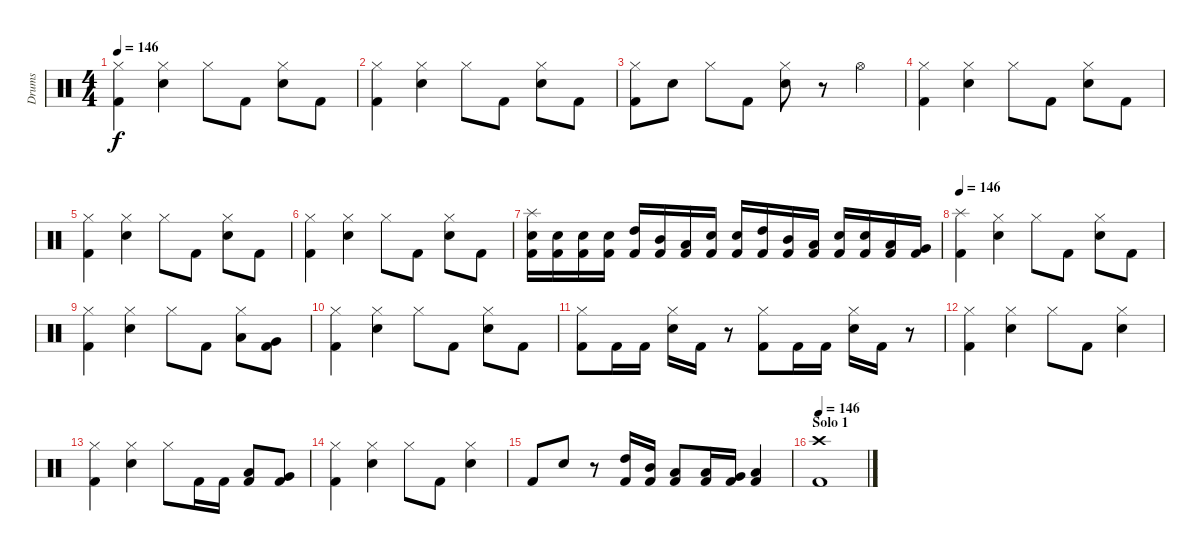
\track ("Drums" "Drums") {instrument percussion}
\staff {score}
\articulation defaults
\ts (4 4)
\tempo 146
\clef neutral
\ks c
("Kick (hit) 2" "Hi-Hat (closed)").4{dy f} ("Snare (hit) 2" "Hi-Hat (closed)").4 "Hi-Hat (closed)".8 "Kick (hit) 2".8 ("Snare (hit) 2" "Hi-Hat (closed)").8 "Kick (hit) 2".8 |
("Kick (hit) 2" "Hi-Hat (closed)").4 ("Snare (hit) 2" "Hi-Hat (closed)").4 "Hi-Hat (closed)".8 "Kick (hit) 2".8 ("Snare (hit) 2" "Hi-Hat (closed)").8 "Kick (hit) 2".8 |
("Kick (hit) 2" "Hi-Hat (closed)").8 "Snare (hit) 2".8 "Hi-Hat (closed)".8 "Kick (hit) 2".8 ("Snare (hit) 2" "Hi-Hat (closed)").8 r.8 "Hi-Hat (open)".4 |
("Kick (hit) 2" "Hi-Hat (closed)").4 ("Snare (hit) 2" "Hi-Hat (closed)").4 "Hi-Hat (closed)".8 "Kick (hit) 2".8 ("Snare (hit) 2" "Hi-Hat (closed)").8 "Kick (hit) 2".8 |
("Kick (hit) 2" "Hi-Hat (closed)").4 ("Snare (hit) 2" "Hi-Hat (closed)").4 "Hi-Hat (closed)".8 "Kick (hit) 2".8 ("Snare (hit) 2" "Hi-Hat (closed)").8 "Kick (hit) 2".8 |
("Kick (hit) 2" "Hi-Hat (closed)").4 ("Snare (hit) 2" "Hi-Hat (closed)").4 "Hi-Hat (closed)".8 "Kick (hit) 2".8 ("Snare (hit) 2" "Hi-Hat (closed)").8 "Kick (hit) 2".8 |
("Kick (hit) 2" "Snare (hit) 2" "Splash (hit)").16 ("Kick (hit) 2" "Snare (hit) 2").16 ("Kick (hit) 2" "Snare (hit) 2").16 ("Kick (hit) 2" "Snare (hit) 2").16 ("Kick (hit) 2" "High Tom (hit)").16 ("Kick (hit) 2" "Mid Tom (hit)").16 ("Kick (hit) 2" "Low Tom (hit)").16 ("Kick (hit) 2" "Snare (hit) 2").16 ("Kick (hit) 2" "Snare (hit) 2").16 ("Kick (hit) 2" "High Tom (hit)").16 ("Kick (hit) 2" "Mid Tom (hit)").16 ("Kick (hit) 2" "Low Tom (hit)").16 ("Kick (hit) 2" "Snare (hit) 2").16 ("Kick (hit) 2" "Snare (hit) 2").16 ("Kick (hit) 2" "Low Tom (hit)").16 ("Kick (hit) 2" "Very Low Tom (hit)").16 |
\section ("" "")
\tempo 146
("Kick (hit) 2" "Splash (hit)").4 ("Snare (hit) 2" "Hi-Hat (closed)").4 "Hi-Hat (closed)".8 "Kick (hit) 2".8 ("Snare (hit) 2" "Hi-Hat (closed)").8 "Kick (hit) 2".8 |
("Kick (hit) 2" "Hi-Hat (closed)").4 ("Snare (hit) 2" "Hi-Hat (closed)").4 "Hi-Hat (closed)".8 "Kick (hit) 2".8 ("Low Tom (hit)" "Hi-Hat (closed)").8 ("Kick (hit) 2" "Very Low Tom (hit)").8 |
("Kick (hit) 2" "Hi-Hat (closed)").4 ("Snare (hit) 2" "Hi-Hat (closed)").4 "Hi-Hat (closed)".8 "Kick (hit) 2".8 ("Snare (hit) 2" "Hi-Hat (closed)").8 "Kick (hit) 2".8 |
("Kick (hit) 2" "Hi-Hat (closed)").8 "Kick (hit) 2".16 "Kick (hit) 2".16 ("Snare (hit) 2" "Hi-Hat (closed)").16 "Kick (hit) 2".16 r.8 ("Kick (hit) 2" "Hi-Hat (closed)").8 "Kick (hit) 2".16 "Kick (hit) 2".16 ("Snare (hit) 2" "Hi-Hat (closed)").16 "Kick (hit) 2".16 r.8 |
("Kick (hit) 2" "Hi-Hat (closed)").4 ("Snare (hit) 2" "Hi-Hat (closed)").4 "Hi-Hat (closed)".8 "Kick (hit) 2".8 ("Snare (hit) 2" "Hi-Hat (closed)").4 |
("Kick (hit) 2" "Hi-Hat (closed)").4 ("Snare (hit) 2" "Hi-Hat (closed)").4 "Hi-Hat (closed)".8 "Kick (hit) 2".16 "Kick (hit) 2".16 ("Kick (hit) 2" "Low Tom (hit)").8 ("Kick (hit) 2" "Very Low Tom (hit)").8 |
("Kick (hit) 2" "Hi-Hat (closed)").4 ("Snare (hit) 2" "Hi-Hat (closed)").4 "Hi-Hat (closed)".8 "Kick (hit) 2".8 ("Snare (hit) 2" "Hi-Hat (closed)").4 |
"Kick (hit) 2".8 "Snare (hit) 2".8 r.8 ("Kick (hit) 2" "High Tom (hit)").16 ("Kick (hit) 2" "Mid Tom (hit)").16 ("Kick (hit) 2" "Low Tom (hit)").8 ("Kick (hit) 2" "Low Tom (hit)").16 ("Kick (hit) 2" "Very Low Tom (hit)").16 ("Kick (hit) 2" "Low Floor Tom (hit)").4 |
\section ("" "Solo 1")
\tempo 146
("Kick (hit) 2" "Crash high (hit)").1
